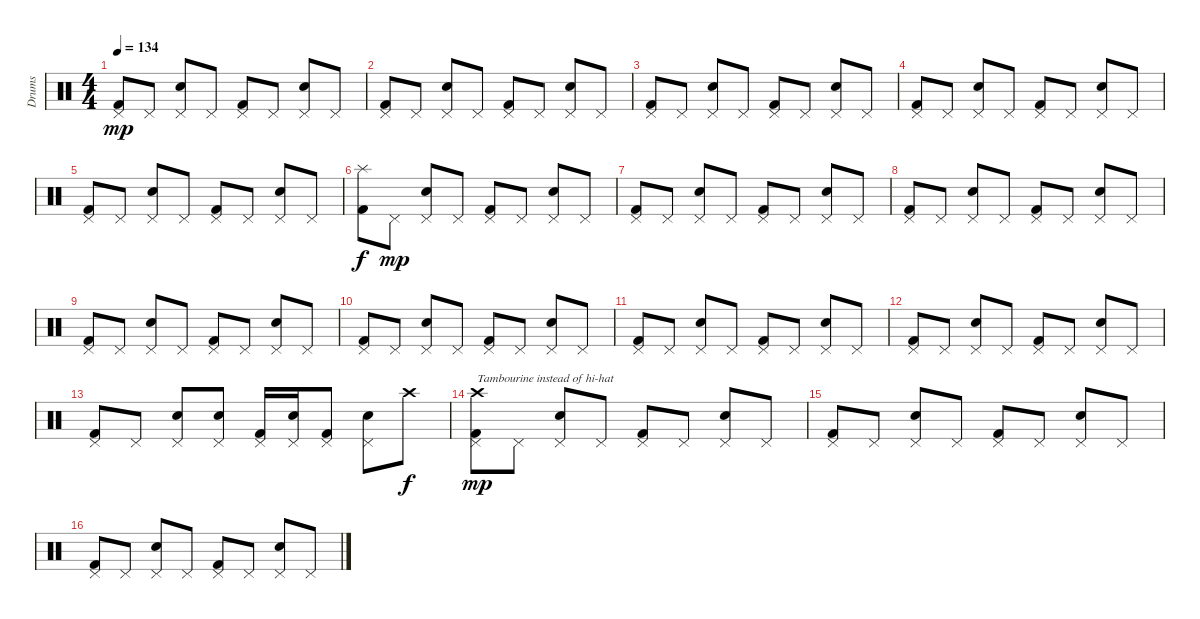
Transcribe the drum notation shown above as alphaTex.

\track ("Drums" "Drums") {instrument percussion}
\staff {score}
\articulation defaults
\ts (4 4)
\tempo 134
\clef neutral
\ks c
("Pedal Hi-Hat (hit)" "Kick (hit) 2").8{dy mp} "Pedal Hi-Hat (hit)".8 ("Pedal Hi-Hat (hit)" "Electric Snare (hit)").8 "Pedal Hi-Hat (hit)".8 ("Pedal Hi-Hat (hit)" "Kick (hit) 2").8 "Pedal Hi-Hat (hit)".8 ("Pedal Hi-Hat (hit)" "Electric Snare (hit)").8 "Pedal Hi-Hat (hit)".8 |
("Pedal Hi-Hat (hit)" "Kick (hit) 2").8 "Pedal Hi-Hat (hit)".8 ("Pedal Hi-Hat (hit)" "Electric Snare (hit)").8 "Pedal Hi-Hat (hit)".8 ("Pedal Hi-Hat (hit)" "Kick (hit) 2").8 "Pedal Hi-Hat (hit)".8 ("Pedal Hi-Hat (hit)" "Electric Snare (hit)").8 "Pedal Hi-Hat (hit)".8 |
("Pedal Hi-Hat (hit)" "Kick (hit) 2").8 "Pedal Hi-Hat (hit)".8 ("Pedal Hi-Hat (hit)" "Electric Snare (hit)").8 "Pedal Hi-Hat (hit)".8 ("Pedal Hi-Hat (hit)" "Kick (hit) 2").8 "Pedal Hi-Hat (hit)".8 ("Pedal Hi-Hat (hit)" "Electric Snare (hit)").8 "Pedal Hi-Hat (hit)".8 |
("Pedal Hi-Hat (hit)" "Kick (hit) 2").8 "Pedal Hi-Hat (hit)".8 ("Pedal Hi-Hat (hit)" "Electric Snare (hit)").8 "Pedal Hi-Hat (hit)".8 ("Pedal Hi-Hat (hit)" "Kick (hit) 2").8 "Pedal Hi-Hat (hit)".8 ("Pedal Hi-Hat (hit)" "Electric Snare (hit)").8 "Pedal Hi-Hat (hit)".8 |
("Pedal Hi-Hat (hit)" "Kick (hit) 2").8 "Pedal Hi-Hat (hit)".8 ("Pedal Hi-Hat (hit)" "Electric Snare (hit)").8 "Pedal Hi-Hat (hit)".8 ("Pedal Hi-Hat (hit)" "Kick (hit) 2").8 "Pedal Hi-Hat (hit)".8 ("Pedal Hi-Hat (hit)" "Electric Snare (hit)").8 "Pedal Hi-Hat (hit)".8 |
("Splash (hit)" "Kick (hit) 2").8{dy f} "Pedal Hi-Hat (hit)".8{dy mp} ("Pedal Hi-Hat (hit)" "Electric Snare (hit)").8 "Pedal Hi-Hat (hit)".8 ("Pedal Hi-Hat (hit)" "Kick (hit) 2").8 "Pedal Hi-Hat (hit)".8 ("Pedal Hi-Hat (hit)" "Electric Snare (hit)").8 "Pedal Hi-Hat (hit)".8 |
("Pedal Hi-Hat (hit)" "Kick (hit) 2").8 "Pedal Hi-Hat (hit)".8 ("Pedal Hi-Hat (hit)" "Electric Snare (hit)").8 "Pedal Hi-Hat (hit)".8 ("Pedal Hi-Hat (hit)" "Kick (hit) 2").8 "Pedal Hi-Hat (hit)".8 ("Pedal Hi-Hat (hit)" "Electric Snare (hit)").8 "Pedal Hi-Hat (hit)".8 |
("Pedal Hi-Hat (hit)" "Kick (hit) 2").8 "Pedal Hi-Hat (hit)".8 ("Pedal Hi-Hat (hit)" "Electric Snare (hit)").8 "Pedal Hi-Hat (hit)".8 ("Pedal Hi-Hat (hit)" "Kick (hit) 2").8 "Pedal Hi-Hat (hit)".8 ("Pedal Hi-Hat (hit)" "Electric Snare (hit)").8 "Pedal Hi-Hat (hit)".8 |
("Pedal Hi-Hat (hit)" "Kick (hit) 2").8 "Pedal Hi-Hat (hit)".8 ("Pedal Hi-Hat (hit)" "Electric Snare (hit)").8 "Pedal Hi-Hat (hit)".8 ("Pedal Hi-Hat (hit)" "Kick (hit) 2").8 "Pedal Hi-Hat (hit)".8 ("Pedal Hi-Hat (hit)" "Electric Snare (hit)").8 "Pedal Hi-Hat (hit)".8 |
("Pedal Hi-Hat (hit)" "Kick (hit) 2").8 "Pedal Hi-Hat (hit)".8 ("Pedal Hi-Hat (hit)" "Electric Snare (hit)").8 "Pedal Hi-Hat (hit)".8 ("Pedal Hi-Hat (hit)" "Kick (hit) 2").8 "Pedal Hi-Hat (hit)".8 ("Pedal Hi-Hat (hit)" "Electric Snare (hit)").8 "Pedal Hi-Hat (hit)".8 |
("Pedal Hi-Hat (hit)" "Kick (hit) 2").8 "Pedal Hi-Hat (hit)".8 ("Pedal Hi-Hat (hit)" "Electric Snare (hit)").8 "Pedal Hi-Hat (hit)".8 ("Pedal Hi-Hat (hit)" "Kick (hit) 2").8 "Pedal Hi-Hat (hit)".8 ("Pedal Hi-Hat (hit)" "Electric Snare (hit)").8 "Pedal Hi-Hat (hit)".8 |
("Pedal Hi-Hat (hit)" "Kick (hit) 2").8 "Pedal Hi-Hat (hit)".8 ("Pedal Hi-Hat (hit)" "Electric Snare (hit)").8 "Pedal Hi-Hat (hit)".8 ("Pedal Hi-Hat (hit)" "Kick (hit) 2").8 "Pedal Hi-Hat (hit)".8 ("Pedal Hi-Hat (hit)" "Electric Snare (hit)").8 "Pedal Hi-Hat (hit)".8 |
("Pedal Hi-Hat (hit)" "Kick (hit) 2").8 "Pedal Hi-Hat (hit)".8 ("Pedal Hi-Hat (hit)" "Electric Snare (hit)").8 ("Pedal Hi-Hat (hit)" "Electric Snare (hit)").8 ("Pedal Hi-Hat (hit)" "Kick (hit) 2").16 ("Pedal Hi-Hat (hit)" "Electric Snare (hit)").16 ("Pedal Hi-Hat (hit)" "Kick (hit) 2").8 ("Pedal Hi-Hat (hit)" "Electric Snare (hit)").8 "Crash high (hit)".8{dy f} |
("Crash high (hit)" "Pedal Hi-Hat (hit)" "Kick (hit) 2").8{txt "Tambourine instead of hi-hat" dy mp} "Pedal Hi-Hat (hit)".8 ("Pedal Hi-Hat (hit)" "Electric Snare (hit)").8 "Pedal Hi-Hat (hit)".8 ("Pedal Hi-Hat (hit)" "Kick (hit) 2").8 "Pedal Hi-Hat (hit)".8 ("Pedal Hi-Hat (hit)" "Electric Snare (hit)").8 "Pedal Hi-Hat (hit)".8 |
("Pedal Hi-Hat (hit)" "Kick (hit) 2").8 "Pedal Hi-Hat (hit)".8 ("Pedal Hi-Hat (hit)" "Electric Snare (hit)").8 "Pedal Hi-Hat (hit)".8 ("Pedal Hi-Hat (hit)" "Kick (hit) 2").8 "Pedal Hi-Hat (hit)".8 ("Pedal Hi-Hat (hit)" "Electric Snare (hit)").8 "Pedal Hi-Hat (hit)".8 |
("Pedal Hi-Hat (hit)" "Kick (hit) 2").8 "Pedal Hi-Hat (hit)".8 ("Pedal Hi-Hat (hit)" "Electric Snare (hit)").8 "Pedal Hi-Hat (hit)".8 ("Pedal Hi-Hat (hit)" "Kick (hit) 2").8 "Pedal Hi-Hat (hit)".8 ("Pedal Hi-Hat (hit)" "Electric Snare (hit)").8 "Pedal Hi-Hat (hit)".8
